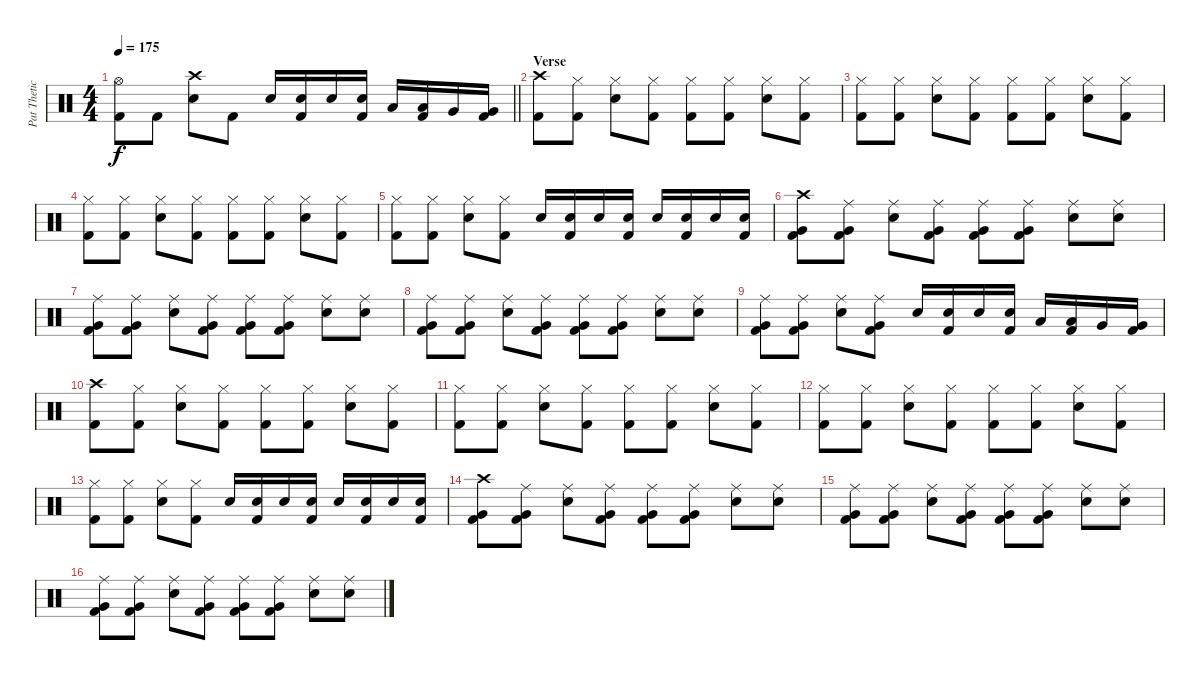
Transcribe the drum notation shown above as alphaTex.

\track ("Pat Thetic" "Pat Thetic") {instrument percussion}
\staff {score}
\articulation defaults
\ts (4 4)
\tempo 175
\clef neutral
\barLineRight lightlight
\ks c
("Hi-Hat (open)" "Kick (hit) 2").8{dy f} "Kick (hit) 2".8 ("Crash high (hit)" "Electric Snare (hit)").8 "Kick (hit) 2".8 "Electric Snare (hit)".16 ("Electric Snare (hit)" "Kick (hit) 2").16 "Electric Snare (hit)".16 ("Electric Snare (hit)" "Kick (hit) 2").16 "Low Tom (hit)".16 ("Low Tom (hit)" "Kick (hit) 2").16 "Very Low Tom (hit)".16 ("Very Low Tom (hit)" "Kick (hit) 2").16 |
\section ("" "Verse")
("Crash high (hit)" "Kick (hit) 2").8 ("Hi-Hat (closed)" "Kick (hit) 2").8 ("Hi-Hat (closed)" "Electric Snare (hit)").8 ("Hi-Hat (closed)" "Kick (hit) 2").8 ("Hi-Hat (closed)" "Kick (hit) 2").8 ("Hi-Hat (closed)" "Kick (hit) 2").8 ("Hi-Hat (closed)" "Electric Snare (hit)").8 ("Hi-Hat (closed)" "Kick (hit) 2").8 |
("Hi-Hat (closed)" "Kick (hit) 2").8 ("Hi-Hat (closed)" "Kick (hit) 2").8 ("Hi-Hat (closed)" "Electric Snare (hit)").8 ("Hi-Hat (closed)" "Kick (hit) 2").8 ("Hi-Hat (closed)" "Kick (hit) 2").8 ("Hi-Hat (closed)" "Kick (hit) 2").8 ("Hi-Hat (closed)" "Electric Snare (hit)").8 ("Hi-Hat (closed)" "Kick (hit) 2").8 |
("Hi-Hat (closed)" "Kick (hit) 2").8 ("Hi-Hat (closed)" "Kick (hit) 2").8 ("Hi-Hat (closed)" "Electric Snare (hit)").8 ("Hi-Hat (closed)" "Kick (hit) 2").8 ("Hi-Hat (closed)" "Kick (hit) 2").8 ("Hi-Hat (closed)" "Kick (hit) 2").8 ("Hi-Hat (closed)" "Electric Snare (hit)").8 ("Hi-Hat (closed)" "Kick (hit) 2").8 |
("Hi-Hat (closed)" "Kick (hit) 2").8 ("Hi-Hat (closed)" "Kick (hit) 2").8 ("Hi-Hat (closed)" "Electric Snare (hit)").8 ("Hi-Hat (closed)" "Kick (hit) 2").8 "Electric Snare (hit)".16 ("Electric Snare (hit)" "Kick (hit) 2").16 "Electric Snare (hit)".16 ("Electric Snare (hit)" "Kick (hit) 2").16 "Electric Snare (hit)".16 ("Electric Snare (hit)" "Kick (hit) 2").16 "Electric Snare (hit)".16 ("Electric Snare (hit)" "Kick (hit) 2").16 |
("Crash high (hit)" "Very Low Tom (hit)" "Kick (hit) 2").8 ("Ride (middle)" "Very Low Tom (hit)" "Kick (hit) 2").8 ("Ride (middle)" "Electric Snare (hit)").8 ("Ride (middle)" "Very Low Tom (hit)" "Kick (hit) 2").8 ("Ride (middle)" "Very Low Tom (hit)" "Kick (hit) 2").8 ("Ride (middle)" "Very Low Tom (hit)" "Kick (hit) 2").8 ("Ride (middle)" "Electric Snare (hit)").8 ("Ride (middle)" "Electric Snare (hit)").8 |
("Ride (middle)" "Very Low Tom (hit)" "Kick (hit) 2").8 ("Ride (middle)" "Very Low Tom (hit)" "Kick (hit) 2").8 ("Ride (middle)" "Electric Snare (hit)").8 ("Ride (middle)" "Very Low Tom (hit)" "Kick (hit) 2").8 ("Ride (middle)" "Very Low Tom (hit)" "Kick (hit) 2").8 ("Ride (middle)" "Very Low Tom (hit)" "Kick (hit) 2").8 ("Ride (middle)" "Electric Snare (hit)").8 ("Ride (middle)" "Electric Snare (hit)").8 |
("Ride (middle)" "Very Low Tom (hit)" "Kick (hit) 2").8 ("Ride (middle)" "Very Low Tom (hit)" "Kick (hit) 2").8 ("Ride (middle)" "Electric Snare (hit)").8 ("Ride (middle)" "Very Low Tom (hit)" "Kick (hit) 2").8 ("Ride (middle)" "Very Low Tom (hit)" "Kick (hit) 2").8 ("Ride (middle)" "Very Low Tom (hit)" "Kick (hit) 2").8 ("Ride (middle)" "Electric Snare (hit)").8 ("Ride (middle)" "Electric Snare (hit)").8 |
("Ride (middle)" "Very Low Tom (hit)" "Kick (hit) 2").8 ("Ride (middle)" "Very Low Tom (hit)" "Kick (hit) 2").8 ("Ride (middle)" "Electric Snare (hit)").8 ("Ride (middle)" "Very Low Tom (hit)" "Kick (hit) 2").8 "Electric Snare (hit)".16 ("Electric Snare (hit)" "Kick (hit) 2").16 "Electric Snare (hit)".16 ("Electric Snare (hit)" "Kick (hit) 2").16 "Low Tom (hit)".16 ("Low Tom (hit)" "Kick (hit) 2").16 "Very Low Tom (hit)".16 ("Very Low Tom (hit)" "Kick (hit) 2").16 |
("Crash high (hit)" "Kick (hit) 2").8 ("Hi-Hat (closed)" "Kick (hit) 2").8 ("Hi-Hat (closed)" "Electric Snare (hit)").8 ("Hi-Hat (closed)" "Kick (hit) 2").8 ("Hi-Hat (closed)" "Kick (hit) 2").8 ("Hi-Hat (closed)" "Kick (hit) 2").8 ("Hi-Hat (closed)" "Electric Snare (hit)").8 ("Hi-Hat (closed)" "Kick (hit) 2").8 |
("Hi-Hat (closed)" "Kick (hit) 2").8 ("Hi-Hat (closed)" "Kick (hit) 2").8 ("Hi-Hat (closed)" "Electric Snare (hit)").8 ("Hi-Hat (closed)" "Kick (hit) 2").8 ("Hi-Hat (closed)" "Kick (hit) 2").8 ("Hi-Hat (closed)" "Kick (hit) 2").8 ("Hi-Hat (closed)" "Electric Snare (hit)").8 ("Hi-Hat (closed)" "Kick (hit) 2").8 |
("Hi-Hat (closed)" "Kick (hit) 2").8 ("Hi-Hat (closed)" "Kick (hit) 2").8 ("Hi-Hat (closed)" "Electric Snare (hit)").8 ("Hi-Hat (closed)" "Kick (hit) 2").8 ("Hi-Hat (closed)" "Kick (hit) 2").8 ("Hi-Hat (closed)" "Kick (hit) 2").8 ("Hi-Hat (closed)" "Electric Snare (hit)").8 ("Hi-Hat (closed)" "Kick (hit) 2").8 |
("Hi-Hat (closed)" "Kick (hit) 2").8 ("Hi-Hat (closed)" "Kick (hit) 2").8 ("Hi-Hat (closed)" "Electric Snare (hit)").8 ("Hi-Hat (closed)" "Kick (hit) 2").8 "Electric Snare (hit)".16 ("Electric Snare (hit)" "Kick (hit) 2").16 "Electric Snare (hit)".16 ("Electric Snare (hit)" "Kick (hit) 2").16 "Electric Snare (hit)".16 ("Electric Snare (hit)" "Kick (hit) 2").16 "Electric Snare (hit)".16 ("Electric Snare (hit)" "Kick (hit) 2").16 |
("Crash high (hit)" "Very Low Tom (hit)" "Kick (hit) 2").8 ("Ride (middle)" "Very Low Tom (hit)" "Kick (hit) 2").8 ("Ride (middle)" "Electric Snare (hit)").8 ("Ride (middle)" "Very Low Tom (hit)" "Kick (hit) 2").8 ("Ride (middle)" "Very Low Tom (hit)" "Kick (hit) 2").8 ("Ride (middle)" "Very Low Tom (hit)" "Kick (hit) 2").8 ("Ride (middle)" "Electric Snare (hit)").8 ("Ride (middle)" "Electric Snare (hit)").8 |
("Ride (middle)" "Very Low Tom (hit)" "Kick (hit) 2").8 ("Ride (middle)" "Very Low Tom (hit)" "Kick (hit) 2").8 ("Ride (middle)" "Electric Snare (hit)").8 ("Ride (middle)" "Very Low Tom (hit)" "Kick (hit) 2").8 ("Ride (middle)" "Very Low Tom (hit)" "Kick (hit) 2").8 ("Ride (middle)" "Very Low Tom (hit)" "Kick (hit) 2").8 ("Ride (middle)" "Electric Snare (hit)").8 ("Ride (middle)" "Electric Snare (hit)").8 |
("Ride (middle)" "Very Low Tom (hit)" "Kick (hit) 2").8 ("Ride (middle)" "Very Low Tom (hit)" "Kick (hit) 2").8 ("Ride (middle)" "Electric Snare (hit)").8 ("Ride (middle)" "Very Low Tom (hit)" "Kick (hit) 2").8 ("Ride (middle)" "Very Low Tom (hit)" "Kick (hit) 2").8 ("Ride (middle)" "Very Low Tom (hit)" "Kick (hit) 2").8 ("Ride (middle)" "Electric Snare (hit)").8 ("Ride (middle)" "Electric Snare (hit)").8
